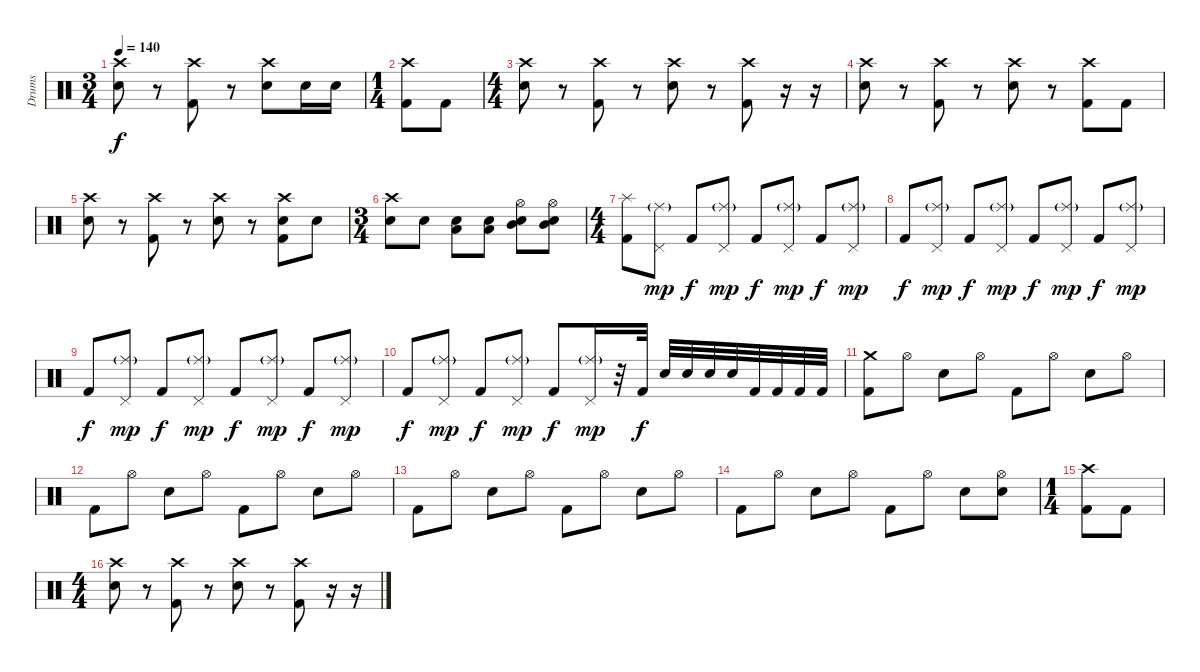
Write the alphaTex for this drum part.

\track ("Drums" "Drums") {instrument percussion}
\staff {score}
\articulation defaults
\ts (3 4)
\tempo 140
\clef neutral
\ks c
("Crash high (hit)" "Electric Snare (hit)").8{dy f} r.8 ("Crash high (hit)" "Kick (hit) 2").8 r.8 ("Crash high (hit)" "Electric Snare (hit)").8 "Electric Snare (hit)".16 "Electric Snare (hit)".16 |
\ts (1 4)
("Crash high (hit)" "Kick (hit) 2").8 "Kick (hit) 2".8 |
\ts (4 4)
("Crash high (hit)" "Electric Snare (hit)").8 r.8 ("Crash high (hit)" "Kick (hit) 2").8 r.8 ("Crash high (hit)" "Electric Snare (hit)").8 r.8 ("Crash high (hit)" "Kick (hit) 2").8 r.16 r.16 |
("Crash high (hit)" "Electric Snare (hit)").8 r.8 ("Crash high (hit)" "Kick (hit) 2").8 r.8 ("Crash high (hit)" "Electric Snare (hit)").8 r.8 ("Crash high (hit)" "Kick (hit) 2").8 "Kick (hit) 2".8 |
("Crash high (hit)" "Electric Snare (hit)").8 r.8 ("Crash high (hit)" "Kick (hit) 2").8 r.8 ("Crash high (hit)" "Electric Snare (hit)").8 r.8 ("Crash high (hit)" "Electric Snare (hit)" "Kick (hit) 2").8 "Electric Snare (hit)".8 |
\ts (3 4)
("Crash high (hit)" "Electric Snare (hit)").8 "Electric Snare (hit)".8 ("Low Tom (hit)" "Electric Snare (hit)").8 ("Low Tom (hit)" "Electric Snare (hit)").8 ("Hi-Hat (open)" "Mid Tom (hit)" "Electric Snare (hit)").8 ("Hi-Hat (open)" "Mid Tom (hit)" "Electric Snare (hit)").8 |
\ts (4 4)
("Splash (hit)" "Kick (hit) 2").8 ("Ride (middle)"{g} "Pedal Hi-Hat (hit)").8{dy mp} "Kick (hit) 2".8{dy f} ("Ride (middle)"{g} "Pedal Hi-Hat (hit)").8{dy mp} "Kick (hit) 2".8{dy f} ("Ride (middle)"{g} "Pedal Hi-Hat (hit)").8{dy mp} "Kick (hit) 2".8{dy f} ("Ride (middle)"{g} "Pedal Hi-Hat (hit)").8{dy mp} |
"Kick (hit) 2".8{dy f} ("Ride (middle)"{g} "Pedal Hi-Hat (hit)").8{dy mp} "Kick (hit) 2".8{dy f} ("Ride (middle)"{g} "Pedal Hi-Hat (hit)").8{dy mp} "Kick (hit) 2".8{dy f} ("Ride (middle)"{g} "Pedal Hi-Hat (hit)").8{dy mp} "Kick (hit) 2".8{dy f} ("Ride (middle)"{g} "Pedal Hi-Hat (hit)").8{dy mp} |
"Kick (hit) 2".8{dy f} ("Ride (middle)"{g} "Pedal Hi-Hat (hit)").8{dy mp} "Kick (hit) 2".8{dy f} ("Ride (middle)"{g} "Pedal Hi-Hat (hit)").8{dy mp} "Kick (hit) 2".8{dy f} ("Ride (middle)"{g} "Pedal Hi-Hat (hit)").8{dy mp} "Kick (hit) 2".8{dy f} ("Ride (middle)"{g} "Pedal Hi-Hat (hit)").8{dy mp} |
"Kick (hit) 2".8{dy f} ("Ride (middle)"{g} "Pedal Hi-Hat (hit)").8{dy mp} "Kick (hit) 2".8{dy f} ("Ride (middle)"{g} "Pedal Hi-Hat (hit)").8{dy mp} "Kick (hit) 2".8{dy f} ("Ride (middle)"{g} "Pedal Hi-Hat (hit)").16{dy mp} r.32 "Kick (hit) 2".32{dy f} "Electric Snare (hit)".32 "Electric Snare (hit)".32 "Electric Snare (hit)".32 "Electric Snare (hit)".32 "Kick (hit) 2".32 "Kick (hit) 2".32 "Kick (hit) 2".32 "Kick (hit) 2".32 |
("Crash medium (hit)" "Kick (hit) 2").8 "Hi-Hat (open)".8 "Electric Snare (hit)".8 "Hi-Hat (open)".8 "Kick (hit) 2".8 "Hi-Hat (open)".8 "Electric Snare (hit)".8 "Hi-Hat (open)".8 |
"Kick (hit) 2".8 "Hi-Hat (open)".8 "Electric Snare (hit)".8 "Hi-Hat (open)".8 "Kick (hit) 2".8 "Hi-Hat (open)".8 "Electric Snare (hit)".8 "Hi-Hat (open)".8 |
"Kick (hit) 2".8 "Hi-Hat (open)".8 "Electric Snare (hit)".8 "Hi-Hat (open)".8 "Kick (hit) 2".8 "Hi-Hat (open)".8 "Electric Snare (hit)".8 "Hi-Hat (open)".8 |
"Kick (hit) 2".8 "Hi-Hat (open)".8 "Electric Snare (hit)".8 "Hi-Hat (open)".8 "Kick (hit) 2".8 "Hi-Hat (open)".8 "Electric Snare (hit)".8 ("Hi-Hat (open)" "Electric Snare (hit)").8 |
\ts (1 4)
("Crash high (hit)" "Kick (hit) 2").8 "Kick (hit) 2".8 |
\ts (4 4)
("Crash high (hit)" "Electric Snare (hit)").8 r.8 ("Crash high (hit)" "Kick (hit) 2").8 r.8 ("Crash high (hit)" "Electric Snare (hit)").8 r.8 ("Crash high (hit)" "Kick (hit) 2").8 r.16 r.16
